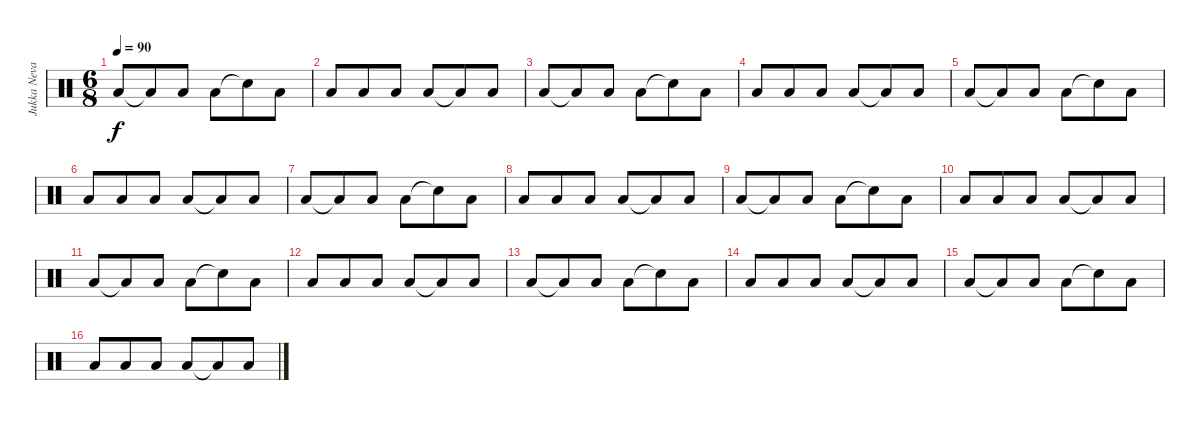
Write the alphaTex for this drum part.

\track ("Jukka Nevalainen" "Jukka Neva") {instrument percussion}
\staff {score}
\articulation defaults
\ts (6 8)
\tempo 90
\clef neutral
\ks c "Low Floor Tom (hit)".8{dy f} "Low Floor Tom (hit)"{t}.8 "Low Floor Tom (hit)".8 "Low Floor Tom (hit)".8 "Snare (hit)"{t}.8 "Low Floor Tom (hit)".8
|
"Low Floor Tom (hit)".8 "Low Floor Tom (hit)".8 "Low Floor Tom (hit)".8 "Low Floor Tom (hit)".8 "Low Floor Tom (hit)"{t}.8 "Low Floor Tom (hit)".8 |
"Low Floor Tom (hit)".8 "Low Floor Tom (hit)"{t}.8 "Low Floor Tom (hit)".8 "Low Floor Tom (hit)".8 "Snare (hit)"{t}.8 "Low Floor Tom (hit)".8 |
"Low Floor Tom (hit)".8 "Low Floor Tom (hit)".8 "Low Floor Tom (hit)".8 "Low Floor Tom (hit)".8 "Low Floor Tom (hit)"{t}.8 "Low Floor Tom (hit)".8 |
"Low Floor Tom (hit)".8 "Low Floor Tom (hit)"{t}.8 "Low Floor Tom (hit)".8 "Low Floor Tom (hit)".8 "Snare (hit)"{t}.8 "Low Floor Tom (hit)".8 |
"Low Floor Tom (hit)".8 "Low Floor Tom (hit)".8 "Low Floor Tom (hit)".8 "Low Floor Tom (hit)".8 "Low Floor Tom (hit)"{t}.8 "Low Floor Tom (hit)".8 |
"Low Floor Tom (hit)".8 "Low Floor Tom (hit)"{t}.8 "Low Floor Tom (hit)".8 "Low Floor Tom (hit)".8 "Snare (hit)"{t}.8 "Low Floor Tom (hit)".8 |
"Low Floor Tom (hit)".8 "Low Floor Tom (hit)".8 "Low Floor Tom (hit)".8 "Low Floor Tom (hit)".8 "Low Floor Tom (hit)"{t}.8 "Low Floor Tom (hit)".8 |
"Low Floor Tom (hit)".8 "Low Floor Tom (hit)"{t}.8 "Low Floor Tom (hit)".8 "Low Floor Tom (hit)".8 "Snare (hit)"{t}.8 "Low Floor Tom (hit)".8 |
"Low Floor Tom (hit)".8 "Low Floor Tom (hit)".8 "Low Floor Tom (hit)".8 "Low Floor Tom (hit)".8 "Low Floor Tom (hit)"{t}.8 "Low Floor Tom (hit)".8 |
"Low Floor Tom (hit)".8 "Low Floor Tom (hit)"{t}.8 "Low Floor Tom (hit)".8 "Low Floor Tom (hit)".8 "Snare (hit)"{t}.8 "Low Floor Tom (hit)".8 |
"Low Floor Tom (hit)".8 "Low Floor Tom (hit)".8 "Low Floor Tom (hit)".8 "Low Floor Tom (hit)".8 "Low Floor Tom (hit)"{t}.8 "Low Floor Tom (hit)".8 |
"Low Floor Tom (hit)".8 "Low Floor Tom (hit)"{t}.8 "Low Floor Tom (hit)".8 "Low Floor Tom (hit)".8 "Snare (hit)"{t}.8 "Low Floor Tom (hit)".8 |
"Low Floor Tom (hit)".8 "Low Floor Tom (hit)".8 "Low Floor Tom (hit)".8 "Low Floor Tom (hit)".8 "Low Floor Tom (hit)"{t}.8 "Low Floor Tom (hit)".8 |
"Low Floor Tom (hit)".8 "Low Floor Tom (hit)"{t}.8 "Low Floor Tom (hit)".8 "Low Floor Tom (hit)".8 "Snare (hit)"{t}.8 "Low Floor Tom (hit)".8 |
"Low Floor Tom (hit)".8 "Low Floor Tom (hit)".8 "Low Floor Tom (hit)".8 "Low Floor Tom (hit)".8 "Low Floor Tom (hit)"{t}.8 "Low Floor Tom (hit)".8
